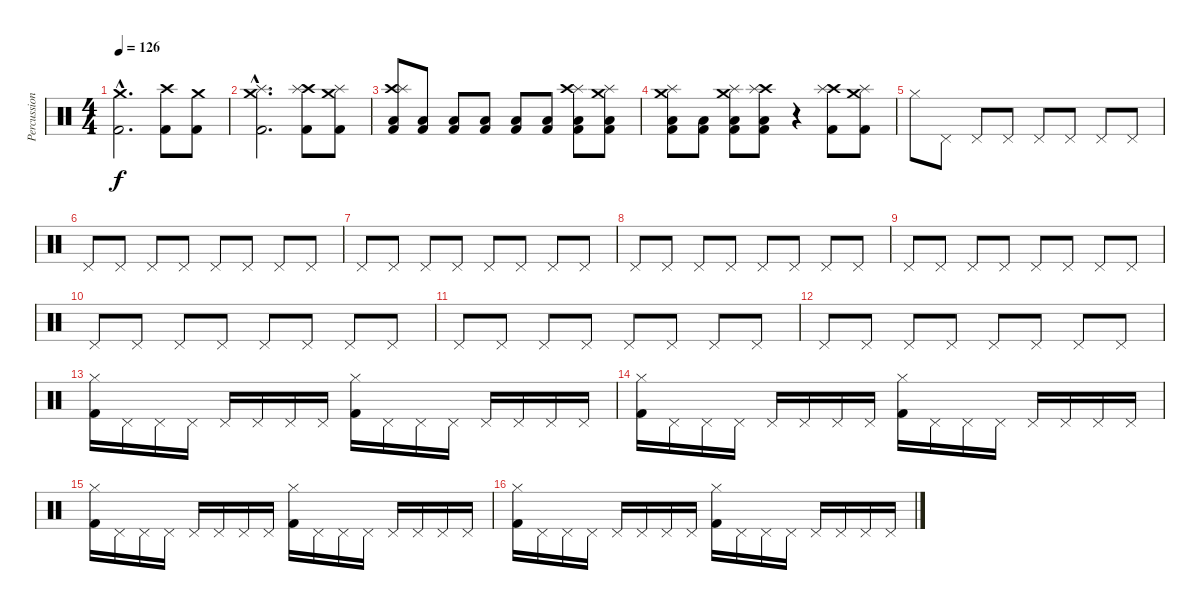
\track ("Percussions" "Percussion") {instrument percussion}
\staff {score}
\articulation defaults
\ts (4 4)
\tempo 126
\clef neutral
\ks c
("Crash medium (hit)"{hac} "Kick (hit) 2"{hac}).2{d dy f} ("Crash high (hit)" "Kick (hit) 2").8 ("Crash medium (hit)" "Kick (hit) 2").8 |
("Crash medium (hit)"{hac} "Splash (hit)"{hac} "Kick (hit) 2"{hac}).2{d} ("Crash high (hit)" "Splash (hit)" "Kick (hit) 2").8 ("Crash medium (hit)" "Splash (hit)" "Kick (hit) 2").8 |
("Crash high (hit)" "Splash (hit)" "Low Floor Tom (hit)" "Kick (hit) 2").8 ("Low Floor Tom (hit)" "Kick (hit) 2").8 ("Low Floor Tom (hit)" "Kick (hit) 2").8 ("Low Floor Tom (hit)" "Kick (hit) 2").8 ("Low Floor Tom (hit)" "Kick (hit) 2").8 ("Low Floor Tom (hit)" "Kick (hit) 2").8 ("Splash (hit)" "Crash high (hit)" "Low Floor Tom (hit)" "Kick (hit) 2").8 ("Crash medium (hit)" "Splash (hit)" "Low Floor Tom (hit)" "Kick (hit) 2").8 |
("Crash medium (hit)" "Splash (hit)" "Low Floor Tom (hit)" "Kick (hit) 2").8 ("Low Floor Tom (hit)" "Kick (hit) 2").8 ("Crash medium (hit)" "Splash (hit)" "Low Floor Tom (hit)" "Kick (hit) 2").8 ("Crash high (hit)" "Splash (hit)" "Low Floor Tom (hit)" "Kick (hit) 2").8 r.4 ("Crash high (hit)" "Splash (hit)" "Kick (hit) 2").8 ("Crash medium (hit)" "Splash (hit)" "Kick (hit) 2").8 |
"Hi-Hat (closed)".8 "Pedal Hi-Hat (hit)".8 "Pedal Hi-Hat (hit)".8 "Pedal Hi-Hat (hit)".8 "Pedal Hi-Hat (hit)".8 "Pedal Hi-Hat (hit)".8 "Pedal Hi-Hat (hit)".8 "Pedal Hi-Hat (hit)".8 |
"Pedal Hi-Hat (hit)".8 "Pedal Hi-Hat (hit)".8 "Pedal Hi-Hat (hit)".8 "Pedal Hi-Hat (hit)".8 "Pedal Hi-Hat (hit)".8 "Pedal Hi-Hat (hit)".8 "Pedal Hi-Hat (hit)".8 "Pedal Hi-Hat (hit)".8 |
"Pedal Hi-Hat (hit)".8 "Pedal Hi-Hat (hit)".8 "Pedal Hi-Hat (hit)".8 "Pedal Hi-Hat (hit)".8 "Pedal Hi-Hat (hit)".8 "Pedal Hi-Hat (hit)".8 "Pedal Hi-Hat (hit)".8 "Pedal Hi-Hat (hit)".8 |
"Pedal Hi-Hat (hit)".8 "Pedal Hi-Hat (hit)".8 "Pedal Hi-Hat (hit)".8 "Pedal Hi-Hat (hit)".8 "Pedal Hi-Hat (hit)".8 "Pedal Hi-Hat (hit)".8 "Pedal Hi-Hat (hit)".8 "Pedal Hi-Hat (hit)".8 |
"Pedal Hi-Hat (hit)".8 "Pedal Hi-Hat (hit)".8 "Pedal Hi-Hat (hit)".8 "Pedal Hi-Hat (hit)".8 "Pedal Hi-Hat (hit)".8 "Pedal Hi-Hat (hit)".8 "Pedal Hi-Hat (hit)".8 "Pedal Hi-Hat (hit)".8 |
"Pedal Hi-Hat (hit)".8 "Pedal Hi-Hat (hit)".8 "Pedal Hi-Hat (hit)".8 "Pedal Hi-Hat (hit)".8 "Pedal Hi-Hat (hit)".8 "Pedal Hi-Hat (hit)".8 "Pedal Hi-Hat (hit)".8 "Pedal Hi-Hat (hit)".8 |
"Pedal Hi-Hat (hit)".8 "Pedal Hi-Hat (hit)".8 "Pedal Hi-Hat (hit)".8 "Pedal Hi-Hat (hit)".8 "Pedal Hi-Hat (hit)".8 "Pedal Hi-Hat (hit)".8 "Pedal Hi-Hat (hit)".8 "Pedal Hi-Hat (hit)".8 |
"Pedal Hi-Hat (hit)".8 "Pedal Hi-Hat (hit)".8 "Pedal Hi-Hat (hit)".8 "Pedal Hi-Hat (hit)".8 "Pedal Hi-Hat (hit)".8 "Pedal Hi-Hat (hit)".8 "Pedal Hi-Hat (hit)".8 "Pedal Hi-Hat (hit)".8 |
("Hi-Hat (closed)" "Kick (hit) 2").16 "Pedal Hi-Hat (hit)".16 "Pedal Hi-Hat (hit)".16 "Pedal Hi-Hat (hit)".16 "Pedal Hi-Hat (hit)".16 "Pedal Hi-Hat (hit)".16 "Pedal Hi-Hat (hit)".16 "Pedal Hi-Hat (hit)".16 ("Hi-Hat (closed)" "Kick (hit) 2").16 "Pedal Hi-Hat (hit)".16 "Pedal Hi-Hat (hit)".16 "Pedal Hi-Hat (hit)".16 "Pedal Hi-Hat (hit)".16 "Pedal Hi-Hat (hit)".16 "Pedal Hi-Hat (hit)".16 "Pedal Hi-Hat (hit)".16 |
("Hi-Hat (closed)" "Kick (hit) 2").16 "Pedal Hi-Hat (hit)".16 "Pedal Hi-Hat (hit)".16 "Pedal Hi-Hat (hit)".16 "Pedal Hi-Hat (hit)".16 "Pedal Hi-Hat (hit)".16 "Pedal Hi-Hat (hit)".16 "Pedal Hi-Hat (hit)".16 ("Hi-Hat (closed)" "Kick (hit) 2").16 "Pedal Hi-Hat (hit)".16 "Pedal Hi-Hat (hit)".16 "Pedal Hi-Hat (hit)".16 "Pedal Hi-Hat (hit)".16 "Pedal Hi-Hat (hit)".16 "Pedal Hi-Hat (hit)".16 "Pedal Hi-Hat (hit)".16 |
("Hi-Hat (closed)" "Kick (hit) 2").16 "Pedal Hi-Hat (hit)".16 "Pedal Hi-Hat (hit)".16 "Pedal Hi-Hat (hit)".16 "Pedal Hi-Hat (hit)".16 "Pedal Hi-Hat (hit)".16 "Pedal Hi-Hat (hit)".16 "Pedal Hi-Hat (hit)".16 ("Hi-Hat (closed)" "Kick (hit) 2").16 "Pedal Hi-Hat (hit)".16 "Pedal Hi-Hat (hit)".16 "Pedal Hi-Hat (hit)".16 "Pedal Hi-Hat (hit)".16 "Pedal Hi-Hat (hit)".16 "Pedal Hi-Hat (hit)".16 "Pedal Hi-Hat (hit)".16 |
("Hi-Hat (closed)" "Kick (hit) 2").16 "Pedal Hi-Hat (hit)".16 "Pedal Hi-Hat (hit)".16 "Pedal Hi-Hat (hit)".16 "Pedal Hi-Hat (hit)".16 "Pedal Hi-Hat (hit)".16 "Pedal Hi-Hat (hit)".16 "Pedal Hi-Hat (hit)".16 ("Hi-Hat (closed)" "Kick (hit) 2").16 "Pedal Hi-Hat (hit)".16 "Pedal Hi-Hat (hit)".16 "Pedal Hi-Hat (hit)".16 "Pedal Hi-Hat (hit)".16 "Pedal Hi-Hat (hit)".16 "Pedal Hi-Hat (hit)".16 "Pedal Hi-Hat (hit)".16
